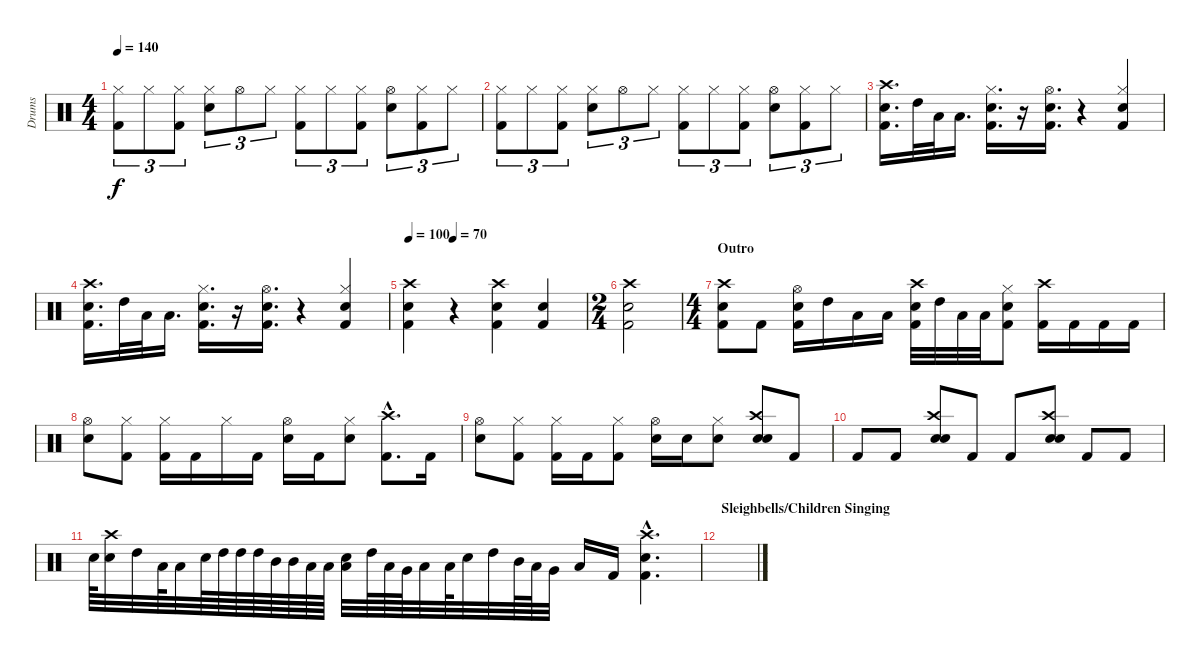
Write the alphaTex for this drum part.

\track ("Drums" "Drums") {instrument percussion}
\staff {score}
\articulation defaults
\ts (4 4)
\tempo 140
\clef neutral
\ks c
("Kick (hit) 2" "Hi-Hat (closed)").8{tu (3 2) dy f} "Hi-Hat (closed)".8{tu (3 2)} ("Kick (hit) 2" "Hi-Hat (closed)").8{tu (3 2)} ("Snare (hit) 2" "Hi-Hat (closed)").8{tu (3 2)} "Hi-Hat (open)".8{tu (3 2)} "Hi-Hat (closed)".8{tu (3 2)} ("Kick (hit) 2" "Hi-Hat (closed)").8{tu (3 2)} "Hi-Hat (closed)".8{tu (3 2)} ("Kick (hit) 2" "Hi-Hat (closed)").8{tu (3 2)} ("Snare (hit) 2" "Hi-Hat (open)").8{tu (3 2)} ("Kick (hit) 2" "Hi-Hat (closed)").8{tu (3 2)} "Hi-Hat (closed)".8{tu (3 2)} |
("Kick (hit) 2" "Hi-Hat (closed)").8{tu (3 2)} "Hi-Hat (closed)".8{tu (3 2)} ("Kick (hit) 2" "Hi-Hat (closed)").8{tu (3 2)} ("Snare (hit) 2" "Hi-Hat (closed)").8{tu (3 2)} "Hi-Hat (open)".8{tu (3 2)} "Hi-Hat (closed)".8{tu (3 2)} ("Kick (hit) 2" "Hi-Hat (closed)").8{tu (3 2)} "Hi-Hat (closed)".8{tu (3 2)} ("Kick (hit) 2" "Hi-Hat (closed)").8{tu (3 2)} ("Snare (hit) 2" "Hi-Hat (open)").8{tu (3 2)} ("Kick (hit) 2" "Hi-Hat (closed)").8{tu (3 2)} "Hi-Hat (closed)".8{tu (3 2)} |
("Snare (hit) 2" "Crash high (hit)" "Kick (hit) 2").16{d} "High Tom (hit)".32 "Low Tom (hit)".32 "Low Floor Tom (hit)".16{d} ("Kick (hit) 2" "Snare (hit) 2" "Hi-Hat (closed)").16{d} r.16 ("Snare (hit) 2" "Hi-Hat (open)" "Kick (hit) 2").16{d} r.4 ("Kick (hit) 2" "Snare (hit) 2" "Hi-Hat (closed)").4 |
("Snare (hit) 2" "Crash high (hit)" "Kick (hit) 2").16{d} "High Tom (hit)".32 "Low Tom (hit)".32 "Low Floor Tom (hit)".16{d} ("Kick (hit) 2" "Snare (hit) 2" "Hi-Hat (closed)").16{d} r.16 ("Snare (hit) 2" "Hi-Hat (open)" "Kick (hit) 2").16{d} r.4 ("Kick (hit) 2" "Snare (hit) 2" "Hi-Hat (closed)").4 |
\tempo 100
\tempo (70 0.25)
("Snare (hit) 2" "Kick (hit) 2" "Crash high (hit)").4 r.4 ("Snare (hit) 2" "Kick (hit) 2" "Crash high (hit)").4 ("Snare (hit) 2" "Kick (hit) 2").4 |
\ts (2 4)
("Snare (hit) 2" "Kick (hit) 2" "Crash high (hit)").2 |
\ts (4 4)
\section ("" "Outro")
("Snare (hit) 2" "Crash high (hit)" "Kick (hit) 2").8 "Kick (hit) 2".8 ("Hi-Hat (open)" "Kick (hit) 2" "Snare (hit) 2").16 "High Tom (hit)".16 "Low Tom (hit)".16 "Low Floor Tom (hit)".16 ("Crash high (hit)" "Kick (hit) 2" "Snare (hit) 2").32 "High Tom (hit)".32 "Low Tom (hit)".32 "Low Floor Tom (hit)".32 ("Hi-Hat (closed)" "Snare (hit) 2" "Kick (hit) 2").8 ("Crash high (hit)" "Kick (hit) 2").16 "Kick (hit) 2".16 "Kick (hit) 2".16 "Kick (hit) 2".16 |
("Hi-Hat (open)" "Snare (hit) 2").8 ("Hi-Hat (closed)" "Kick (hit) 2").8 ("Hi-Hat (closed)" "Kick (hit) 2").16 "Kick (hit) 2".16 "Hi-Hat (closed)".16 "Kick (hit) 2".16 ("Hi-Hat (open)" "Snare (hit) 2").16 "Kick (hit) 2".16 ("Snare (hit) 2" "Hi-Hat (closed)").8 ("Kick (hit) 2"{hac} "Crash high (hit)"{hac}).8{d} "Kick (hit) 2".16 |
("Hi-Hat (open)" "Snare (hit) 2").8 ("Hi-Hat (closed)" "Kick (hit) 2").8 ("Hi-Hat (closed)" "Kick (hit) 2").16 "Kick (hit) 2".16 ("Kick (hit) 2" "Hi-Hat (closed)").8 ("Hi-Hat (open)" "Snare (hit) 2").16 "Snare (hit) 2".16 ("Snare (hit) 2" "Hi-Hat (closed)").8 ("Electric Snare (hit)" "Snare (hit) 2" "Crash high (hit)").8 "Kick (hit) 2".8 |
"Kick (hit) 2".8 "Kick (hit) 2".8 ("Electric Snare (hit)" "Snare (hit) 2" "Crash high (hit)").8 "Kick (hit) 2".8 "Kick (hit) 2".8 ("Electric Snare (hit)" "Crash high (hit)" "Snare (hit) 2").8 "Kick (hit) 2".8 "Kick (hit) 2".8 |
"Snare (hit) 2".64 ("Crash high (hit)" "Snare (hit) 2").32 "High Tom (hit)".32 "Low Tom (hit)".64 "Low Floor Tom (hit)".32 "Snare (hit) 2".64 "High Tom (hit)".64 "High Tom (hit)".64 "High Tom (hit)".64 "Mid Tom (hit)".64 "Mid Tom (hit)".64 "Low Tom (hit)".64 "Low Tom (hit)".64 ("Low Floor Tom (hit)" "Snare (hit) 2").32 "High Tom (hit)".64 "Low Tom (hit)".64 "Very Low Tom (hit)".64 "Low Floor Tom (hit)".32 "Low Floor Tom (hit)".64 "Snare (hit) 2".32 "High Tom (hit)".32 "Mid Tom (hit)".64 "Low Tom (hit)".64 "Very Low Tom (hit)".32 "Low Floor Tom (hit)".16 "Kick (hit) 2".16 ("Kick (hit) 2"{hac} "Snare (hit) 2"{hac} "Crash high (hit)"{hac}).4{d} |
\section ("" "Sleighbells/Children Singing")
